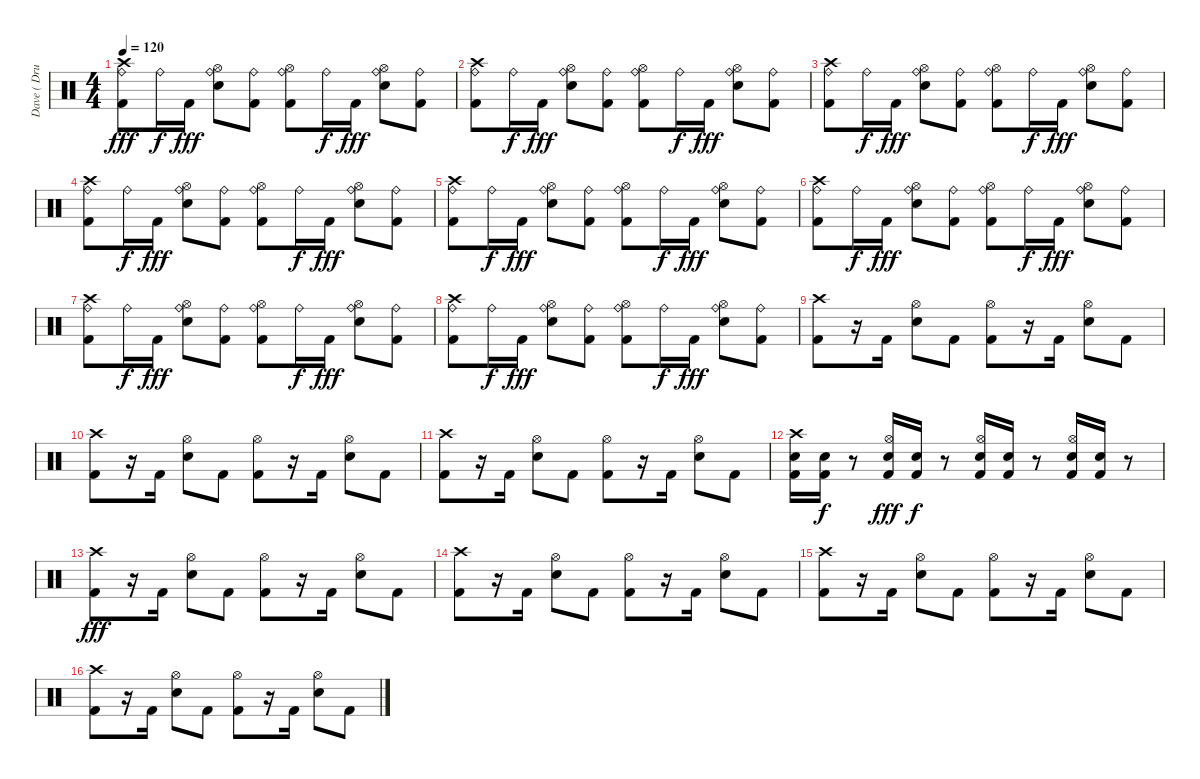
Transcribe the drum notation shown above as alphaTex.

\track ("Dave ( Drumm )" "Dave ( Dru") {instrument percussion}
\staff {score}
\articulation defaults
\ts (4 4)
\tempo 120
\clef neutral
\ks c
("Crash high (hit)" "Kick (hit) 2" "Ride (bell)").8{dy fff} "Ride (bell)".16{dy f} "Kick (hit) 2".16{dy fff} ("Hi-Hat (open)" "Snare (hit) 2" "Ride (bell)").8 ("Kick (hit) 2" "Ride (bell)").8 ("Hi-Hat (open)" "Kick (hit) 2" "Ride (bell)").8 "Ride (bell)".16{dy f} "Kick (hit) 2".16{dy fff} ("Hi-Hat (open)" "Snare (hit) 2" "Ride (bell)").8 ("Kick (hit) 2" "Ride (bell)").8 |
("Crash high (hit)" "Kick (hit) 2" "Ride (bell)").8 "Ride (bell)".16{dy f} "Kick (hit) 2".16{dy fff} ("Hi-Hat (open)" "Snare (hit) 2" "Ride (bell)").8 ("Kick (hit) 2" "Ride (bell)").8 ("Hi-Hat (open)" "Kick (hit) 2" "Ride (bell)").8 "Ride (bell)".16{dy f} "Kick (hit) 2".16{dy fff} ("Hi-Hat (open)" "Snare (hit) 2" "Ride (bell)").8 ("Kick (hit) 2" "Ride (bell)").8 |
("Crash high (hit)" "Kick (hit) 2" "Ride (bell)").8 "Ride (bell)".16{dy f} "Kick (hit) 2".16{dy fff} ("Hi-Hat (open)" "Snare (hit) 2" "Ride (bell)").8 ("Kick (hit) 2" "Ride (bell)").8 ("Hi-Hat (open)" "Kick (hit) 2" "Ride (bell)").8 "Ride (bell)".16{dy f} "Kick (hit) 2".16{dy fff} ("Hi-Hat (open)" "Snare (hit) 2" "Ride (bell)").8 ("Kick (hit) 2" "Ride (bell)").8 |
("Crash high (hit)" "Kick (hit) 2" "Ride (bell)").8 "Ride (bell)".16{dy f} "Kick (hit) 2".16{dy fff} ("Hi-Hat (open)" "Snare (hit) 2" "Ride (bell)").8 ("Kick (hit) 2" "Ride (bell)").8 ("Hi-Hat (open)" "Kick (hit) 2" "Ride (bell)").8 "Ride (bell)".16{dy f} "Kick (hit) 2".16{dy fff} ("Hi-Hat (open)" "Snare (hit) 2" "Ride (bell)").8 ("Kick (hit) 2" "Ride (bell)").8 |
("Crash high (hit)" "Kick (hit) 2" "Ride (bell)").8 "Ride (bell)".16{dy f} "Kick (hit) 2".16{dy fff} ("Hi-Hat (open)" "Snare (hit) 2" "Ride (bell)").8 ("Kick (hit) 2" "Ride (bell)").8 ("Hi-Hat (open)" "Kick (hit) 2" "Ride (bell)").8 "Ride (bell)".16{dy f} "Kick (hit) 2".16{dy fff} ("Hi-Hat (open)" "Snare (hit) 2" "Ride (bell)").8 ("Kick (hit) 2" "Ride (bell)").8 |
("Crash high (hit)" "Kick (hit) 2" "Ride (bell)").8 "Ride (bell)".16{dy f} "Kick (hit) 2".16{dy fff} ("Hi-Hat (open)" "Snare (hit) 2" "Ride (bell)").8 ("Kick (hit) 2" "Ride (bell)").8 ("Hi-Hat (open)" "Kick (hit) 2" "Ride (bell)").8 "Ride (bell)".16{dy f} "Kick (hit) 2".16{dy fff} ("Hi-Hat (open)" "Snare (hit) 2" "Ride (bell)").8 ("Kick (hit) 2" "Ride (bell)").8 |
("Crash high (hit)" "Kick (hit) 2" "Ride (bell)").8 "Ride (bell)".16{dy f} "Kick (hit) 2".16{dy fff} ("Hi-Hat (open)" "Snare (hit) 2" "Ride (bell)").8 ("Kick (hit) 2" "Ride (bell)").8 ("Hi-Hat (open)" "Kick (hit) 2" "Ride (bell)").8 "Ride (bell)".16{dy f} "Kick (hit) 2".16{dy fff} ("Hi-Hat (open)" "Snare (hit) 2" "Ride (bell)").8 ("Kick (hit) 2" "Ride (bell)").8 |
("Crash high (hit)" "Kick (hit) 2" "Ride (bell)").8 "Ride (bell)".16{dy f} "Kick (hit) 2".16{dy fff} ("Hi-Hat (open)" "Snare (hit) 2" "Ride (bell)").8 ("Kick (hit) 2" "Ride (bell)").8 ("Hi-Hat (open)" "Kick (hit) 2" "Ride (bell)").8 "Ride (bell)".16{dy f} "Kick (hit) 2".16{dy fff} ("Hi-Hat (open)" "Snare (hit) 2" "Ride (bell)").8 ("Kick (hit) 2" "Ride (bell)").8 |
("Crash high (hit)" "Kick (hit) 2").8 r.16 "Kick (hit) 2".16 ("Hi-Hat (open)" "Snare (hit) 2").8 "Kick (hit) 2".8 ("Hi-Hat (open)" "Kick (hit) 2").8 r.16 "Kick (hit) 2".16 ("Hi-Hat (open)" "Snare (hit) 2").8 "Kick (hit) 2".8 |
("Crash high (hit)" "Kick (hit) 2").8 r.16 "Kick (hit) 2".16 ("Hi-Hat (open)" "Snare (hit) 2").8 "Kick (hit) 2".8 ("Hi-Hat (open)" "Kick (hit) 2").8 r.16 "Kick (hit) 2".16 ("Hi-Hat (open)" "Snare (hit) 2").8 "Kick (hit) 2".8 |
("Crash high (hit)" "Kick (hit) 2").8 r.16 "Kick (hit) 2".16 ("Hi-Hat (open)" "Snare (hit) 2").8 "Kick (hit) 2".8 ("Hi-Hat (open)" "Kick (hit) 2").8 r.16 "Kick (hit) 2".16 ("Hi-Hat (open)" "Snare (hit) 2").8 "Kick (hit) 2".8 |
("Crash high (hit)" "Snare (hit) 2" "Kick (hit) 2").16 ("Snare (hit) 2" "Kick (hit) 2").16{dy f} r.8 ("Hi-Hat (open)" "Snare (hit) 2" "Kick (hit) 2").16{dy fff} ("Snare (hit) 2" "Kick (hit) 2").16{dy f} r.8 ("Hi-Hat (open)" "Snare (hit) 2" "Kick (hit) 2").16 ("Snare (hit) 2" "Kick (hit) 2").16 r.8 ("Hi-Hat (open)" "Snare (hit) 2" "Kick (hit) 2").16 ("Snare (hit) 2" "Kick (hit) 2").16 r.8 |
("Crash high (hit)" "Kick (hit) 2").8{dy fff} r.16 "Kick (hit) 2".16 ("Hi-Hat (open)" "Snare (hit) 2").8 "Kick (hit) 2".8 ("Hi-Hat (open)" "Kick (hit) 2").8 r.16 "Kick (hit) 2".16 ("Hi-Hat (open)" "Snare (hit) 2").8 "Kick (hit) 2".8 |
("Crash high (hit)" "Kick (hit) 2").8 r.16 "Kick (hit) 2".16 ("Hi-Hat (open)" "Snare (hit) 2").8 "Kick (hit) 2".8 ("Hi-Hat (open)" "Kick (hit) 2").8 r.16 "Kick (hit) 2".16 ("Hi-Hat (open)" "Snare (hit) 2").8 "Kick (hit) 2".8 |
("Crash high (hit)" "Kick (hit) 2").8 r.16 "Kick (hit) 2".16 ("Hi-Hat (open)" "Snare (hit) 2").8 "Kick (hit) 2".8 ("Hi-Hat (open)" "Kick (hit) 2").8 r.16 "Kick (hit) 2".16 ("Hi-Hat (open)" "Snare (hit) 2").8 "Kick (hit) 2".8 |
("Crash high (hit)" "Kick (hit) 2").8 r.16 "Kick (hit) 2".16 ("Hi-Hat (open)" "Snare (hit) 2").8 "Kick (hit) 2".8 ("Hi-Hat (open)" "Kick (hit) 2").8 r.16 "Kick (hit) 2".16 ("Hi-Hat (open)" "Snare (hit) 2").8 "Kick (hit) 2".8
